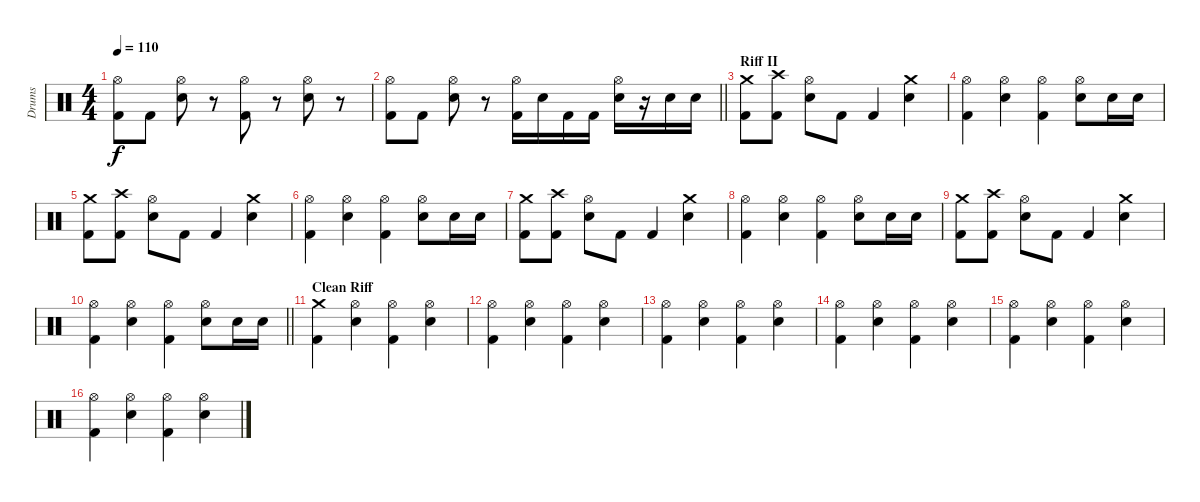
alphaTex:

\track ("Drums" "Drums") {instrument percussion}
\staff {score}
\articulation defaults
\ts (4 4)
\tempo 110
\clef neutral
\ks c
("Hi-Hat (open)" "Kick (hit) 2").8{dy f} "Kick (hit) 2".8 ("Hi-Hat (open)" "Snare (hit) 2").8 r.8 ("Hi-Hat (open)" "Kick (hit) 2").8 r.8 ("Hi-Hat (open)" "Snare (hit) 2").8 r.8 |
\barLineRight lightlight
("Hi-Hat (open)" "Kick (hit) 2").8 "Kick (hit) 2".8 ("Hi-Hat (open)" "Snare (hit) 2").8 r.8 ("Hi-Hat (open)" "Kick (hit) 2").16 "Snare (hit) 2".16 "Kick (hit) 2".16 "Kick (hit) 2".16 ("Hi-Hat (open)" "Snare (hit) 2").16 r.16 "Snare (hit) 2".16 "Snare (hit) 2".16 |
\section ("" "Riff II")
("Crash medium (hit)" "Kick (hit) 2").8 ("Crash high (hit)" "Kick (hit) 2").8 ("Hi-Hat (open)" "Snare (hit) 2").8 "Kick (hit) 2".8 "Kick (hit) 2".4 ("Crash medium (hit)" "Snare (hit) 2").4 |
("Hi-Hat (open)" "Kick (hit) 2").4 ("Hi-Hat (open)" "Snare (hit) 2").4 ("Hi-Hat (open)" "Kick (hit) 2").4 ("Hi-Hat (open)" "Snare (hit) 2").8 "Snare (hit) 2".16 "Snare (hit) 2".16 |
("Crash medium (hit)" "Kick (hit) 2").8 ("Crash high (hit)" "Kick (hit) 2").8 ("Hi-Hat (open)" "Snare (hit) 2").8 "Kick (hit) 2".8 "Kick (hit) 2".4 ("Crash medium (hit)" "Snare (hit) 2").4 |
("Hi-Hat (open)" "Kick (hit) 2").4 ("Hi-Hat (open)" "Snare (hit) 2").4 ("Hi-Hat (open)" "Kick (hit) 2").4 ("Hi-Hat (open)" "Snare (hit) 2").8 "Snare (hit) 2".16 "Snare (hit) 2".16 |
("Crash medium (hit)" "Kick (hit) 2").8 ("Crash high (hit)" "Kick (hit) 2").8 ("Hi-Hat (open)" "Snare (hit) 2").8 "Kick (hit) 2".8 "Kick (hit) 2".4 ("Crash medium (hit)" "Snare (hit) 2").4 |
("Hi-Hat (open)" "Kick (hit) 2").4 ("Hi-Hat (open)" "Snare (hit) 2").4 ("Hi-Hat (open)" "Kick (hit) 2").4 ("Hi-Hat (open)" "Snare (hit) 2").8 "Snare (hit) 2".16 "Snare (hit) 2".16 |
("Crash medium (hit)" "Kick (hit) 2").8 ("Crash high (hit)" "Kick (hit) 2").8 ("Hi-Hat (open)" "Snare (hit) 2").8 "Kick (hit) 2".8 "Kick (hit) 2".4 ("Crash medium (hit)" "Snare (hit) 2").4 |
\barLineRight lightlight
("Hi-Hat (open)" "Kick (hit) 2").4 ("Hi-Hat (open)" "Snare (hit) 2").4 ("Hi-Hat (open)" "Kick (hit) 2").4 ("Hi-Hat (open)" "Snare (hit) 2").8 "Snare (hit) 2".16 "Snare (hit) 2".16 |
\section ("" "Clean Riff")
("Crash medium (hit)" "Kick (hit) 2").4 ("Hi-Hat (open)" "Snare (hit) 2").4 ("Hi-Hat (open)" "Kick (hit) 2").4 ("Hi-Hat (open)" "Snare (hit) 2").4 |
("Hi-Hat (open)" "Kick (hit) 2").4 ("Hi-Hat (open)" "Snare (hit) 2").4 ("Hi-Hat (open)" "Kick (hit) 2").4 ("Hi-Hat (open)" "Snare (hit) 2").4 |
("Hi-Hat (open)" "Kick (hit) 2").4 ("Hi-Hat (open)" "Snare (hit) 2").4 ("Hi-Hat (open)" "Kick (hit) 2").4 ("Hi-Hat (open)" "Snare (hit) 2").4 |
("Hi-Hat (open)" "Kick (hit) 2").4 ("Hi-Hat (open)" "Snare (hit) 2").4 ("Hi-Hat (open)" "Kick (hit) 2").4 ("Hi-Hat (open)" "Snare (hit) 2").4 |
("Hi-Hat (open)" "Kick (hit) 2").4 ("Hi-Hat (open)" "Snare (hit) 2").4 ("Hi-Hat (open)" "Kick (hit) 2").4 ("Hi-Hat (open)" "Snare (hit) 2").4 |
("Hi-Hat (open)" "Kick (hit) 2").4 ("Hi-Hat (open)" "Snare (hit) 2").4 ("Hi-Hat (open)" "Kick (hit) 2").4 ("Hi-Hat (open)" "Snare (hit) 2").4
